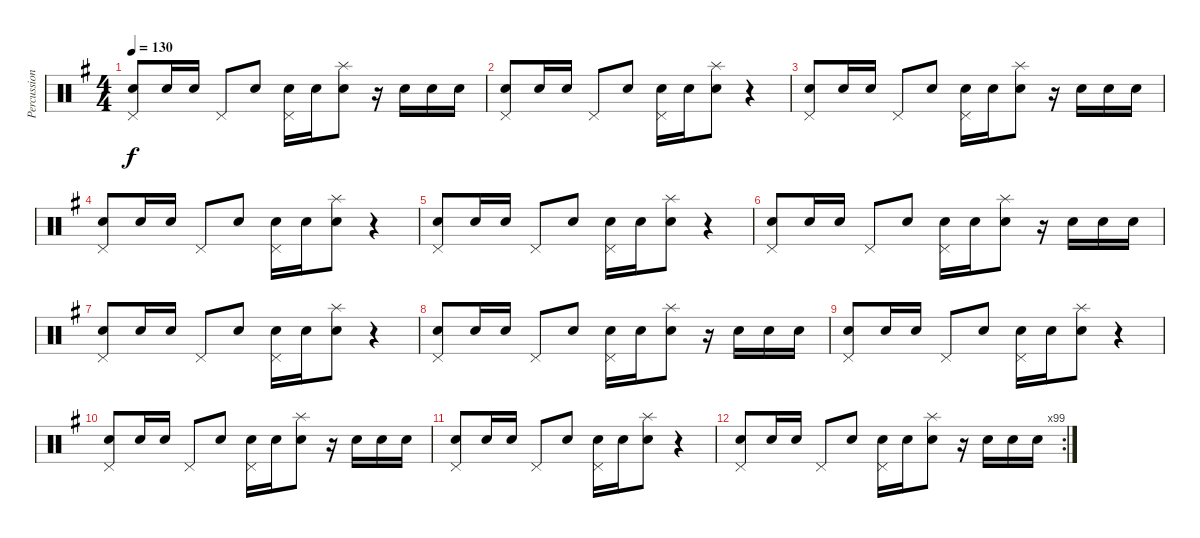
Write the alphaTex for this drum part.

\track ("Percussion" "Percussion") {instrument percussion}
\staff {score}
\articulation defaults
\ts (4 4)
\tempo 130
\clef neutral
\ks g
("Pedal Hi-Hat (hit)" "Snare (hit) 2").8{dy f} "Snare (hit) 2".16 "Snare (hit) 2".16 "Pedal Hi-Hat (hit)".8 "Snare (hit) 2".8 ("Pedal Hi-Hat (hit)" "Snare (hit) 2").16 "Snare (hit) 2".16 ("Splash (hit)" "Snare (hit) 2").8 r.16 "Snare (hit) 2".16 "Snare (hit) 2".16 "Snare (hit) 2".16 |
("Pedal Hi-Hat (hit)" "Snare (hit) 2").8 "Snare (hit) 2".16 "Snare (hit) 2".16 "Pedal Hi-Hat (hit)".8 "Snare (hit) 2".8 ("Pedal Hi-Hat (hit)" "Snare (hit) 2").16 "Snare (hit) 2".16 ("Splash (hit)" "Snare (hit) 2").8 r.4 |
("Pedal Hi-Hat (hit)" "Snare (hit) 2").8 "Snare (hit) 2".16 "Snare (hit) 2".16 "Pedal Hi-Hat (hit)".8 "Snare (hit) 2".8 ("Pedal Hi-Hat (hit)" "Snare (hit) 2").16 "Snare (hit) 2".16 ("Splash (hit)" "Snare (hit) 2").8 r.16 "Snare (hit) 2".16 "Snare (hit) 2".16 "Snare (hit) 2".16 |
("Pedal Hi-Hat (hit)" "Snare (hit) 2").8 "Snare (hit) 2".16 "Snare (hit) 2".16 "Pedal Hi-Hat (hit)".8 "Snare (hit) 2".8 ("Pedal Hi-Hat (hit)" "Snare (hit) 2").16 "Snare (hit) 2".16 ("Splash (hit)" "Snare (hit) 2").8 r.4 |
("Pedal Hi-Hat (hit)" "Snare (hit) 2").8 "Snare (hit) 2".16 "Snare (hit) 2".16 "Pedal Hi-Hat (hit)".8 "Snare (hit) 2".8 ("Pedal Hi-Hat (hit)" "Snare (hit) 2").16 "Snare (hit) 2".16 ("Splash (hit)" "Snare (hit) 2").8 r.4 |
("Pedal Hi-Hat (hit)" "Snare (hit) 2").8 "Snare (hit) 2".16 "Snare (hit) 2".16 "Pedal Hi-Hat (hit)".8 "Snare (hit) 2".8 ("Pedal Hi-Hat (hit)" "Snare (hit) 2").16 "Snare (hit) 2".16 ("Splash (hit)" "Snare (hit) 2").8 r.16 "Snare (hit) 2".16 "Snare (hit) 2".16 "Snare (hit) 2".16 |
("Pedal Hi-Hat (hit)" "Snare (hit) 2").8 "Snare (hit) 2".16 "Snare (hit) 2".16 "Pedal Hi-Hat (hit)".8 "Snare (hit) 2".8 ("Pedal Hi-Hat (hit)" "Snare (hit) 2").16 "Snare (hit) 2".16 ("Splash (hit)" "Snare (hit) 2").8 r.4 |
("Pedal Hi-Hat (hit)" "Snare (hit) 2").8 "Snare (hit) 2".16 "Snare (hit) 2".16 "Pedal Hi-Hat (hit)".8 "Snare (hit) 2".8 ("Pedal Hi-Hat (hit)" "Snare (hit) 2").16 "Snare (hit) 2".16 ("Splash (hit)" "Snare (hit) 2").8 r.16 "Snare (hit) 2".16 "Snare (hit) 2".16 "Snare (hit) 2".16 |
("Pedal Hi-Hat (hit)" "Snare (hit) 2").8 "Snare (hit) 2".16 "Snare (hit) 2".16 "Pedal Hi-Hat (hit)".8 "Snare (hit) 2".8 ("Pedal Hi-Hat (hit)" "Snare (hit) 2").16 "Snare (hit) 2".16 ("Splash (hit)" "Snare (hit) 2").8 r.4 |
("Pedal Hi-Hat (hit)" "Snare (hit) 2").8 "Snare (hit) 2".16 "Snare (hit) 2".16 "Pedal Hi-Hat (hit)".8 "Snare (hit) 2".8 ("Pedal Hi-Hat (hit)" "Snare (hit) 2").16 "Snare (hit) 2".16 ("Splash (hit)" "Snare (hit) 2").8 r.16 "Snare (hit) 2".16 "Snare (hit) 2".16 "Snare (hit) 2".16 |
("Pedal Hi-Hat (hit)" "Snare (hit) 2").8 "Snare (hit) 2".16 "Snare (hit) 2".16 "Pedal Hi-Hat (hit)".8 "Snare (hit) 2".8 ("Pedal Hi-Hat (hit)" "Snare (hit) 2").16 "Snare (hit) 2".16 ("Splash (hit)" "Snare (hit) 2").8 r.4 |
\rc 99
("Pedal Hi-Hat (hit)" "Snare (hit) 2").8 "Snare (hit) 2".16 "Snare (hit) 2".16 "Pedal Hi-Hat (hit)".8 "Snare (hit) 2".8 ("Pedal Hi-Hat (hit)" "Snare (hit) 2").16 "Snare (hit) 2".16 ("Splash (hit)" "Snare (hit) 2").8 r.16 "Snare (hit) 2".16 "Snare (hit) 2".16 "Snare (hit) 2".16
